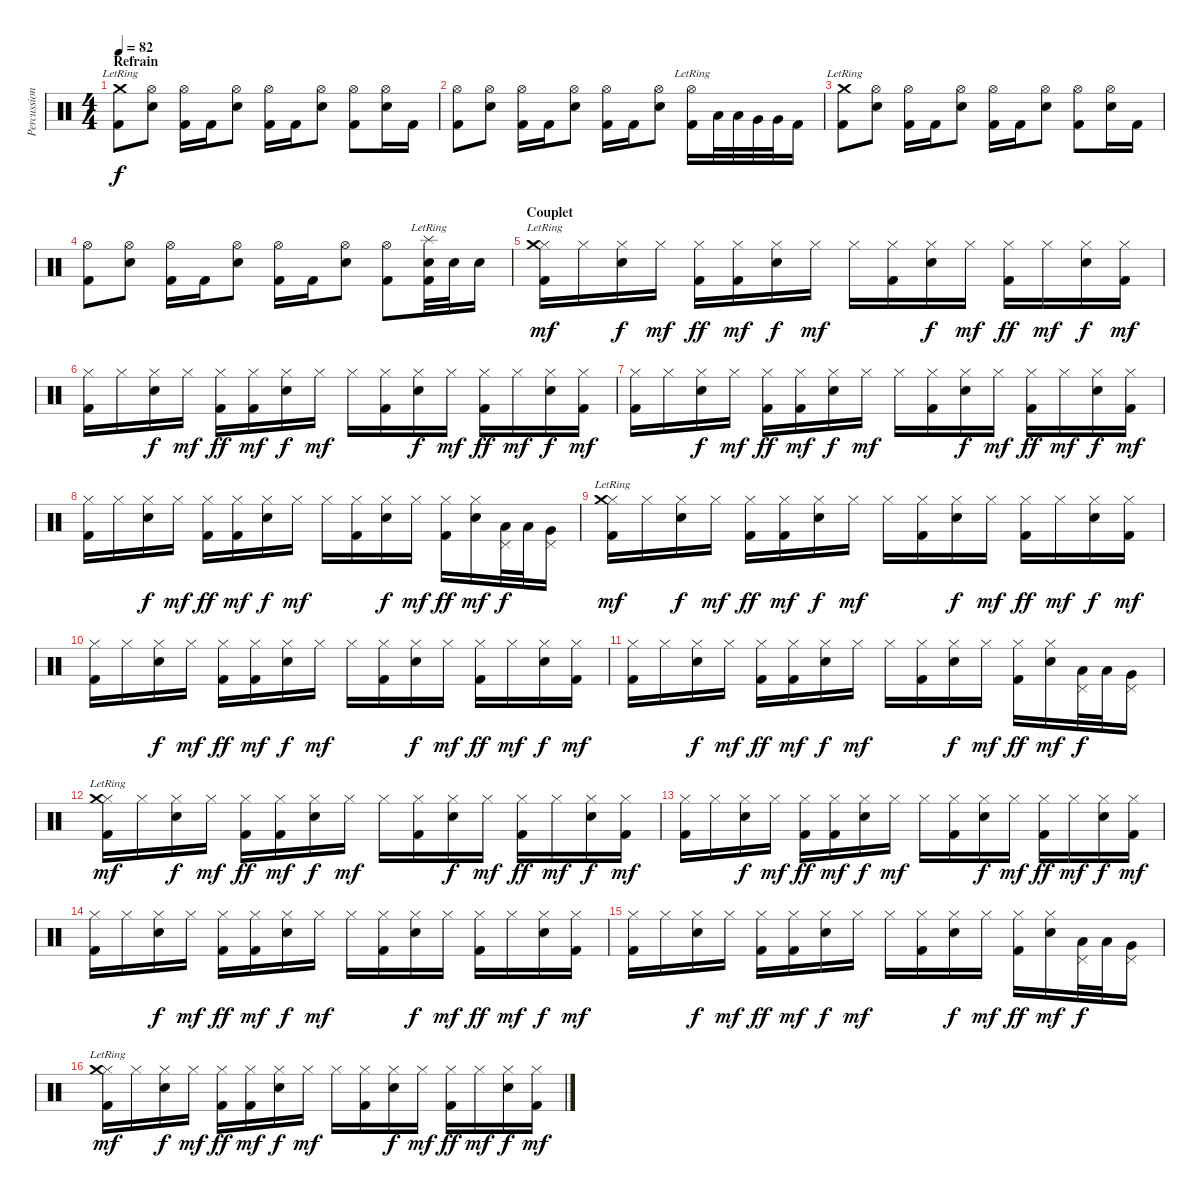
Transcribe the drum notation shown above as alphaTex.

\track ("Percussions" "Percussion") {instrument percussion}
\staff {score}
\articulation defaults
\ts (4 4)
\section ("" "Refrain")
\tempo 82
\clef neutral
\ks c
("Crash medium (hit)"{lr} "Kick (hit) 2").8{dy f} ("Hi-Hat (open)" "Snare (hit) 2").8 ("Hi-Hat (open)" "Kick (hit) 2").16 "Kick (hit) 2".16 ("Hi-Hat (open)" "Snare (hit) 2").8 ("Hi-Hat (open)" "Kick (hit) 2").16 "Kick (hit) 2".16 ("Hi-Hat (open)" "Snare (hit) 2").8 ("Hi-Hat (open)" "Kick (hit) 2").8 ("Hi-Hat (open)" "Snare (hit) 2").16 "Kick (hit) 2".16 |
("Hi-Hat (open)" "Kick (hit) 2").8 ("Hi-Hat (open)" "Snare (hit) 2").8 ("Hi-Hat (open)" "Kick (hit) 2").16 "Kick (hit) 2".16 ("Hi-Hat (open)" "Snare (hit) 2").8 ("Hi-Hat (open)" "Kick (hit) 2").16 "Kick (hit) 2".16 ("Hi-Hat (open)" "Snare (hit) 2").8 ("Hi-Hat (open)"{lr} "Kick (hit) 2").16 "Low Tom (hit)".32 "Low Tom (hit)".32 "Very Low Tom (hit)".32 "Very Low Tom (hit)".32 "Kick (hit) 2".16 |
("Crash medium (hit)"{lr} "Kick (hit) 2").8 ("Hi-Hat (open)" "Snare (hit) 2").8 ("Hi-Hat (open)" "Kick (hit) 2").16 "Kick (hit) 2".16 ("Hi-Hat (open)" "Snare (hit) 2").8 ("Hi-Hat (open)" "Kick (hit) 2").16 "Kick (hit) 2".16 ("Hi-Hat (open)" "Snare (hit) 2").8 ("Hi-Hat (open)" "Kick (hit) 2").8 ("Hi-Hat (open)" "Snare (hit) 2").16 "Kick (hit) 2".16 |
("Hi-Hat (open)" "Kick (hit) 2").8 ("Hi-Hat (open)" "Snare (hit) 2").8 ("Hi-Hat (open)" "Kick (hit) 2").16 "Kick (hit) 2".16 ("Hi-Hat (open)" "Snare (hit) 2").8 ("Hi-Hat (open)" "Kick (hit) 2").16 "Kick (hit) 2".16 ("Hi-Hat (open)" "Snare (hit) 2").8 ("Hi-Hat (open)" "Kick (hit) 2").8 ("Splash (hit)"{lr} "Snare (hit) 2" "Kick (hit) 2").32 "Snare (hit) 2".32 "Snare (hit) 2".16 |
\section ("" "Couplet")
("Hi-Hat (closed)" "Crash medium (hit)"{lr} "Kick (hit) 2").16{dy mf} "Hi-Hat (closed)".16 ("Hi-Hat (closed)" "Snare (hit) 2").16{dy f} "Hi-Hat (closed)".16{dy mf} ("Hi-Hat (closed)" "Kick (hit) 2").16{dy ff} ("Hi-Hat (closed)" "Kick (hit) 2").16{dy mf} ("Hi-Hat (closed)" "Snare (hit) 2").16{dy f} "Hi-Hat (closed)".16{dy mf} "Hi-Hat (closed)".16 ("Hi-Hat (closed)" "Kick (hit) 2").16 ("Hi-Hat (closed)" "Snare (hit) 2").16{dy f} "Hi-Hat (closed)".16{dy mf} ("Hi-Hat (closed)" "Kick (hit) 2").16{dy ff} "Hi-Hat (closed)".16{dy mf} ("Hi-Hat (closed)" "Snare (hit) 2").16{dy f} ("Hi-Hat (closed)" "Kick (hit) 2").16{dy mf} |
("Hi-Hat (closed)" "Kick (hit) 2").16 "Hi-Hat (closed)".16 ("Hi-Hat (closed)" "Snare (hit) 2").16{dy f} "Hi-Hat (closed)".16{dy mf} ("Hi-Hat (closed)" "Kick (hit) 2").16{dy ff} ("Hi-Hat (closed)" "Kick (hit) 2").16{dy mf} ("Hi-Hat (closed)" "Snare (hit) 2").16{dy f} "Hi-Hat (closed)".16{dy mf} "Hi-Hat (closed)".16 ("Hi-Hat (closed)" "Kick (hit) 2").16 ("Hi-Hat (closed)" "Snare (hit) 2").16{dy f} "Hi-Hat (closed)".16{dy mf} ("Hi-Hat (closed)" "Kick (hit) 2").16{dy ff} "Hi-Hat (closed)".16{dy mf} ("Hi-Hat (closed)" "Snare (hit) 2").16{dy f} ("Hi-Hat (closed)" "Kick (hit) 2").16{dy mf} |
("Hi-Hat (closed)" "Kick (hit) 2").16 "Hi-Hat (closed)".16 ("Hi-Hat (closed)" "Snare (hit) 2").16{dy f} "Hi-Hat (closed)".16{dy mf} ("Hi-Hat (closed)" "Kick (hit) 2").16{dy ff} ("Hi-Hat (closed)" "Kick (hit) 2").16{dy mf} ("Hi-Hat (closed)" "Snare (hit) 2").16{dy f} "Hi-Hat (closed)".16{dy mf} "Hi-Hat (closed)".16 ("Hi-Hat (closed)" "Kick (hit) 2").16 ("Hi-Hat (closed)" "Snare (hit) 2").16{dy f} "Hi-Hat (closed)".16{dy mf} ("Hi-Hat (closed)" "Kick (hit) 2").16{dy ff} "Hi-Hat (closed)".16{dy mf} ("Hi-Hat (closed)" "Snare (hit) 2").16{dy f} ("Hi-Hat (closed)" "Kick (hit) 2").16{dy mf} |
("Hi-Hat (closed)" "Kick (hit) 2").16 "Hi-Hat (closed)".16 ("Hi-Hat (closed)" "Snare (hit) 2").16{dy f} "Hi-Hat (closed)".16{dy mf} ("Hi-Hat (closed)" "Kick (hit) 2").16{dy ff} ("Hi-Hat (closed)" "Kick (hit) 2").16{dy mf} ("Hi-Hat (closed)" "Snare (hit) 2").16{dy f} "Hi-Hat (closed)".16{dy mf} "Hi-Hat (closed)".16 ("Hi-Hat (closed)" "Kick (hit) 2").16 ("Hi-Hat (closed)" "Snare (hit) 2").16{dy f} "Hi-Hat (closed)".16{dy mf} ("Hi-Hat (closed)" "Kick (hit) 2").16{dy ff} ("Hi-Hat (closed)" "Snare (hit) 2").16{dy mf} ("Pedal Hi-Hat (hit)" "Low Tom (hit)").32{dy f} "Low Tom (hit)".32 ("Pedal Hi-Hat (hit)" "Very Low Tom (hit)").16 |
("Hi-Hat (closed)" "Crash medium (hit)"{lr} "Kick (hit) 2").16{dy mf} "Hi-Hat (closed)".16 ("Hi-Hat (closed)" "Snare (hit) 2").16{dy f} "Hi-Hat (closed)".16{dy mf} ("Hi-Hat (closed)" "Kick (hit) 2").16{dy ff} ("Hi-Hat (closed)" "Kick (hit) 2").16{dy mf} ("Hi-Hat (closed)" "Snare (hit) 2").16{dy f} "Hi-Hat (closed)".16{dy mf} "Hi-Hat (closed)".16 ("Hi-Hat (closed)" "Kick (hit) 2").16 ("Hi-Hat (closed)" "Snare (hit) 2").16{dy f} "Hi-Hat (closed)".16{dy mf} ("Hi-Hat (closed)" "Kick (hit) 2").16{dy ff} "Hi-Hat (closed)".16{dy mf} ("Hi-Hat (closed)" "Snare (hit) 2").16{dy f} ("Hi-Hat (closed)" "Kick (hit) 2").16{dy mf} |
("Hi-Hat (closed)" "Kick (hit) 2").16 "Hi-Hat (closed)".16 ("Hi-Hat (closed)" "Snare (hit) 2").16{dy f} "Hi-Hat (closed)".16{dy mf} ("Hi-Hat (closed)" "Kick (hit) 2").16{dy ff} ("Hi-Hat (closed)" "Kick (hit) 2").16{dy mf} ("Hi-Hat (closed)" "Snare (hit) 2").16{dy f} "Hi-Hat (closed)".16{dy mf} "Hi-Hat (closed)".16 ("Hi-Hat (closed)" "Kick (hit) 2").16 ("Hi-Hat (closed)" "Snare (hit) 2").16{dy f} "Hi-Hat (closed)".16{dy mf} ("Hi-Hat (closed)" "Kick (hit) 2").16{dy ff} "Hi-Hat (closed)".16{dy mf} ("Hi-Hat (closed)" "Snare (hit) 2").16{dy f} ("Hi-Hat (closed)" "Kick (hit) 2").16{dy mf} |
("Hi-Hat (closed)" "Kick (hit) 2").16 "Hi-Hat (closed)".16 ("Hi-Hat (closed)" "Snare (hit) 2").16{dy f} "Hi-Hat (closed)".16{dy mf} ("Hi-Hat (closed)" "Kick (hit) 2").16{dy ff} ("Hi-Hat (closed)" "Kick (hit) 2").16{dy mf} ("Hi-Hat (closed)" "Snare (hit) 2").16{dy f} "Hi-Hat (closed)".16{dy mf} "Hi-Hat (closed)".16 ("Hi-Hat (closed)" "Kick (hit) 2").16 ("Hi-Hat (closed)" "Snare (hit) 2").16{dy f} "Hi-Hat (closed)".16{dy mf} ("Hi-Hat (closed)" "Kick (hit) 2").16{dy ff} ("Hi-Hat (closed)" "Snare (hit) 2").16{dy mf} ("Pedal Hi-Hat (hit)" "Low Tom (hit)").32{dy f} "Low Tom (hit)".32 ("Pedal Hi-Hat (hit)" "Very Low Tom (hit)").16 |
("Hi-Hat (closed)" "Crash medium (hit)"{lr} "Kick (hit) 2").16{dy mf} "Hi-Hat (closed)".16 ("Hi-Hat (closed)" "Snare (hit) 2").16{dy f} "Hi-Hat (closed)".16{dy mf} ("Hi-Hat (closed)" "Kick (hit) 2").16{dy ff} ("Hi-Hat (closed)" "Kick (hit) 2").16{dy mf} ("Hi-Hat (closed)" "Snare (hit) 2").16{dy f} "Hi-Hat (closed)".16{dy mf} "Hi-Hat (closed)".16 ("Hi-Hat (closed)" "Kick (hit) 2").16 ("Hi-Hat (closed)" "Snare (hit) 2").16{dy f} "Hi-Hat (closed)".16{dy mf} ("Hi-Hat (closed)" "Kick (hit) 2").16{dy ff} "Hi-Hat (closed)".16{dy mf} ("Hi-Hat (closed)" "Snare (hit) 2").16{dy f} ("Hi-Hat (closed)" "Kick (hit) 2").16{dy mf} |
("Hi-Hat (closed)" "Kick (hit) 2").16 "Hi-Hat (closed)".16 ("Hi-Hat (closed)" "Snare (hit) 2").16{dy f} "Hi-Hat (closed)".16{dy mf} ("Hi-Hat (closed)" "Kick (hit) 2").16{dy ff} ("Hi-Hat (closed)" "Kick (hit) 2").16{dy mf} ("Hi-Hat (closed)" "Snare (hit) 2").16{dy f} "Hi-Hat (closed)".16{dy mf} "Hi-Hat (closed)".16 ("Hi-Hat (closed)" "Kick (hit) 2").16 ("Hi-Hat (closed)" "Snare (hit) 2").16{dy f} "Hi-Hat (closed)".16{dy mf} ("Hi-Hat (closed)" "Kick (hit) 2").16{dy ff} "Hi-Hat (closed)".16{dy mf} ("Hi-Hat (closed)" "Snare (hit) 2").16{dy f} ("Hi-Hat (closed)" "Kick (hit) 2").16{dy mf} |
("Hi-Hat (closed)" "Kick (hit) 2").16 "Hi-Hat (closed)".16 ("Hi-Hat (closed)" "Snare (hit) 2").16{dy f} "Hi-Hat (closed)".16{dy mf} ("Hi-Hat (closed)" "Kick (hit) 2").16{dy ff} ("Hi-Hat (closed)" "Kick (hit) 2").16{dy mf} ("Hi-Hat (closed)" "Snare (hit) 2").16{dy f} "Hi-Hat (closed)".16{dy mf} "Hi-Hat (closed)".16 ("Hi-Hat (closed)" "Kick (hit) 2").16 ("Hi-Hat (closed)" "Snare (hit) 2").16{dy f} "Hi-Hat (closed)".16{dy mf} ("Hi-Hat (closed)" "Kick (hit) 2").16{dy ff} "Hi-Hat (closed)".16{dy mf} ("Hi-Hat (closed)" "Snare (hit) 2").16{dy f} ("Hi-Hat (closed)" "Kick (hit) 2").16{dy mf} |
("Hi-Hat (closed)" "Kick (hit) 2").16 "Hi-Hat (closed)".16 ("Hi-Hat (closed)" "Snare (hit) 2").16{dy f} "Hi-Hat (closed)".16{dy mf} ("Hi-Hat (closed)" "Kick (hit) 2").16{dy ff} ("Hi-Hat (closed)" "Kick (hit) 2").16{dy mf} ("Hi-Hat (closed)" "Snare (hit) 2").16{dy f} "Hi-Hat (closed)".16{dy mf} "Hi-Hat (closed)".16 ("Hi-Hat (closed)" "Kick (hit) 2").16 ("Hi-Hat (closed)" "Snare (hit) 2").16{dy f} "Hi-Hat (closed)".16{dy mf} ("Hi-Hat (closed)" "Kick (hit) 2").16{dy ff} ("Hi-Hat (closed)" "Snare (hit) 2").16{dy mf} ("Pedal Hi-Hat (hit)" "Low Tom (hit)").32{dy f} "Low Tom (hit)".32 ("Pedal Hi-Hat (hit)" "Very Low Tom (hit)").16 |
("Hi-Hat (closed)" "Crash medium (hit)"{lr} "Kick (hit) 2").16{dy mf} "Hi-Hat (closed)".16 ("Hi-Hat (closed)" "Snare (hit) 2").16{dy f} "Hi-Hat (closed)".16{dy mf} ("Hi-Hat (closed)" "Kick (hit) 2").16{dy ff} ("Hi-Hat (closed)" "Kick (hit) 2").16{dy mf} ("Hi-Hat (closed)" "Snare (hit) 2").16{dy f} "Hi-Hat (closed)".16{dy mf} "Hi-Hat (closed)".16 ("Hi-Hat (closed)" "Kick (hit) 2").16 ("Hi-Hat (closed)" "Snare (hit) 2").16{dy f} "Hi-Hat (closed)".16{dy mf} ("Hi-Hat (closed)" "Kick (hit) 2").16{dy ff} "Hi-Hat (closed)".16{dy mf} ("Hi-Hat (closed)" "Snare (hit) 2").16{dy f} ("Hi-Hat (closed)" "Kick (hit) 2").16{dy mf}
